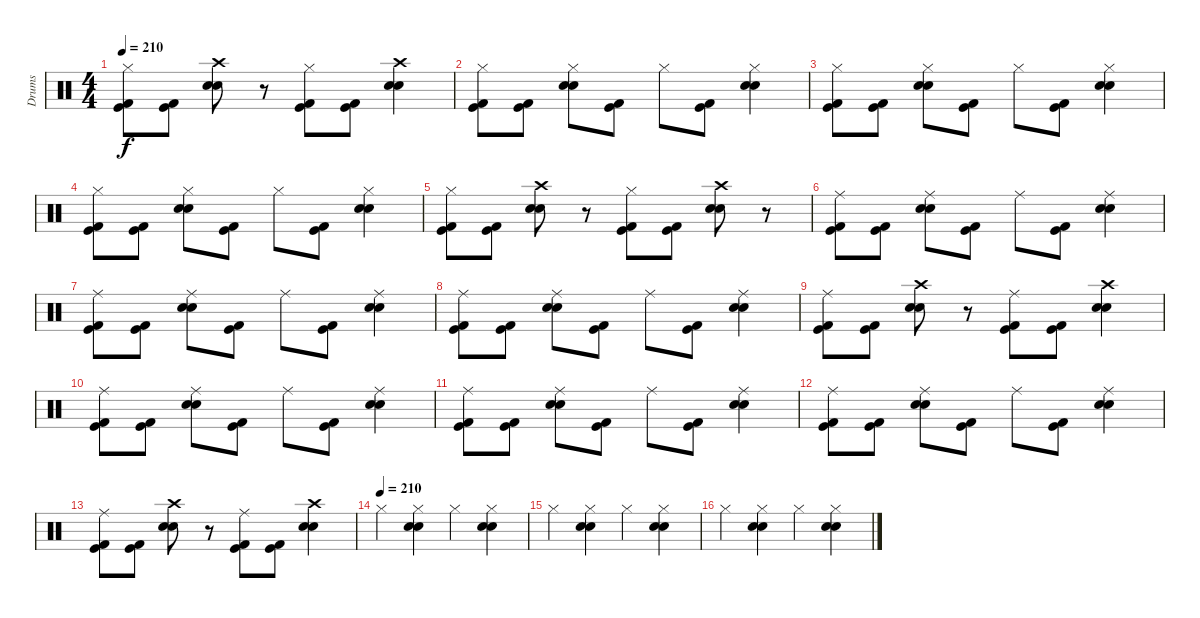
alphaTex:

\track ("Drums" "Drums") {instrument percussion}
\staff {score}
\articulation defaults
\ts (4 4)
\tempo 210
\clef neutral
\ks c
("Hi-Hat (closed)" "Kick (hit) 2" "Kick (hit)").8{dy f} ("Kick (hit) 2" "Kick (hit)").8 ("Crash high (hit)" "Electric Snare (hit)" "Snare (hit) 2").8 r.8 ("Hi-Hat (closed)" "Kick (hit) 2" "Kick (hit)").8 ("Kick (hit) 2" "Kick (hit)").8 ("Crash high (hit)" "Electric Snare (hit)" "Snare (hit) 2").4 |
("Hi-Hat (closed)" "Kick (hit) 2" "Kick (hit)").8 ("Kick (hit) 2" "Kick (hit)").8 ("Hi-Hat (closed)" "Electric Snare (hit)" "Snare (hit) 2").8 ("Kick (hit) 2" "Kick (hit)").8 "Hi-Hat (closed)".8 ("Kick (hit) 2" "Kick (hit)").8 ("Hi-Hat (closed)" "Electric Snare (hit)" "Snare (hit) 2").4 |
("Hi-Hat (closed)" "Kick (hit) 2" "Kick (hit)").8 ("Kick (hit) 2" "Kick (hit)").8 ("Hi-Hat (closed)" "Electric Snare (hit)" "Snare (hit) 2").8 ("Kick (hit) 2" "Kick (hit)").8 "Hi-Hat (closed)".8 ("Kick (hit) 2" "Kick (hit)").8 ("Hi-Hat (closed)" "Electric Snare (hit)" "Snare (hit) 2").4 |
("Hi-Hat (closed)" "Kick (hit) 2" "Kick (hit)").8 ("Kick (hit) 2" "Kick (hit)").8 ("Hi-Hat (closed)" "Electric Snare (hit)" "Snare (hit) 2").8 ("Kick (hit) 2" "Kick (hit)").8 "Hi-Hat (closed)".8 ("Kick (hit) 2" "Kick (hit)").8 ("Hi-Hat (closed)" "Electric Snare (hit)" "Snare (hit) 2").4 |
("Hi-Hat (closed)" "Kick (hit) 2" "Kick (hit)").8 ("Kick (hit) 2" "Kick (hit)").8 ("Crash high (hit)" "Electric Snare (hit)" "Snare (hit) 2").8 r.8 ("Hi-Hat (closed)" "Kick (hit) 2" "Kick (hit)").8 ("Kick (hit) 2" "Kick (hit)").8 ("Crash high (hit)" "Electric Snare (hit)" "Snare (hit) 2").8 r.8 |
("Ride (middle)" "Kick (hit) 2" "Kick (hit)").8 ("Kick (hit) 2" "Kick (hit)").8 ("Ride (middle)" "Electric Snare (hit)" "Snare (hit) 2").8 ("Kick (hit) 2" "Kick (hit)").8 "Ride (middle)".8 ("Kick (hit) 2" "Kick (hit)").8 ("Ride (middle)" "Electric Snare (hit)" "Snare (hit) 2").4 |
("Ride (middle)" "Kick (hit) 2" "Kick (hit)").8 ("Kick (hit) 2" "Kick (hit)").8 ("Ride (middle)" "Electric Snare (hit)" "Snare (hit) 2").8 ("Kick (hit) 2" "Kick (hit)").8 "Ride (middle)".8 ("Kick (hit) 2" "Kick (hit)").8 ("Ride (middle)" "Electric Snare (hit)" "Snare (hit) 2").4 |
("Ride (middle)" "Kick (hit) 2" "Kick (hit)").8 ("Kick (hit) 2" "Kick (hit)").8 ("Ride (middle)" "Electric Snare (hit)" "Snare (hit) 2").8 ("Kick (hit) 2" "Kick (hit)").8 "Ride (middle)".8 ("Kick (hit) 2" "Kick (hit)").8 ("Ride (middle)" "Electric Snare (hit)" "Snare (hit) 2").4 |
("Ride (middle)" "Kick (hit) 2" "Kick (hit)").8 ("Kick (hit) 2" "Kick (hit)").8 ("Crash high (hit)" "Electric Snare (hit)" "Snare (hit) 2").8 r.8 ("Ride (middle)" "Kick (hit) 2" "Kick (hit)").8 ("Kick (hit) 2" "Kick (hit)").8 ("Crash high (hit)" "Electric Snare (hit)" "Snare (hit) 2").4 |
("Ride (middle)" "Kick (hit) 2" "Kick (hit)").8 ("Kick (hit) 2" "Kick (hit)").8 ("Ride (middle)" "Electric Snare (hit)" "Snare (hit) 2").8 ("Kick (hit) 2" "Kick (hit)").8 "Ride (middle)".8 ("Kick (hit) 2" "Kick (hit)").8 ("Ride (middle)" "Electric Snare (hit)" "Snare (hit) 2").4 |
("Ride (middle)" "Kick (hit) 2" "Kick (hit)").8 ("Kick (hit) 2" "Kick (hit)").8 ("Ride (middle)" "Electric Snare (hit)" "Snare (hit) 2").8 ("Kick (hit) 2" "Kick (hit)").8 "Ride (middle)".8 ("Kick (hit) 2" "Kick (hit)").8 ("Ride (middle)" "Electric Snare (hit)" "Snare (hit) 2").4 |
("Ride (middle)" "Kick (hit) 2" "Kick (hit)").8 ("Kick (hit) 2" "Kick (hit)").8 ("Ride (middle)" "Electric Snare (hit)" "Snare (hit) 2").8 ("Kick (hit) 2" "Kick (hit)").8 "Ride (middle)".8 ("Kick (hit) 2" "Kick (hit)").8 ("Ride (middle)" "Electric Snare (hit)" "Snare (hit) 2").4 |
("Ride (middle)" "Kick (hit) 2" "Kick (hit)").8 ("Kick (hit) 2" "Kick (hit)").8 ("Crash high (hit)" "Electric Snare (hit)" "Snare (hit) 2").8 r.8 ("Ride (middle)" "Kick (hit) 2" "Kick (hit)").8 ("Kick (hit) 2" "Kick (hit)").8 ("Crash high (hit)" "Electric Snare (hit)" "Snare (hit) 2").4 |
\tempo (210)
"Hi-Hat (closed)".4 ("Hi-Hat (closed)" "Electric Snare (hit)" "Snare (hit) 2").4 "Hi-Hat (closed)".4 ("Hi-Hat (closed)" "Electric Snare (hit)" "Snare (hit) 2").4 |
"Hi-Hat (closed)".4 ("Hi-Hat (closed)" "Electric Snare (hit)" "Snare (hit) 2").4 "Hi-Hat (closed)".4 ("Hi-Hat (closed)" "Electric Snare (hit)" "Snare (hit) 2").4 |
"Hi-Hat (closed)".4 ("Hi-Hat (closed)" "Electric Snare (hit)" "Snare (hit) 2").4 "Hi-Hat (closed)".4 ("Hi-Hat (closed)" "Electric Snare (hit)" "Snare (hit) 2").4
